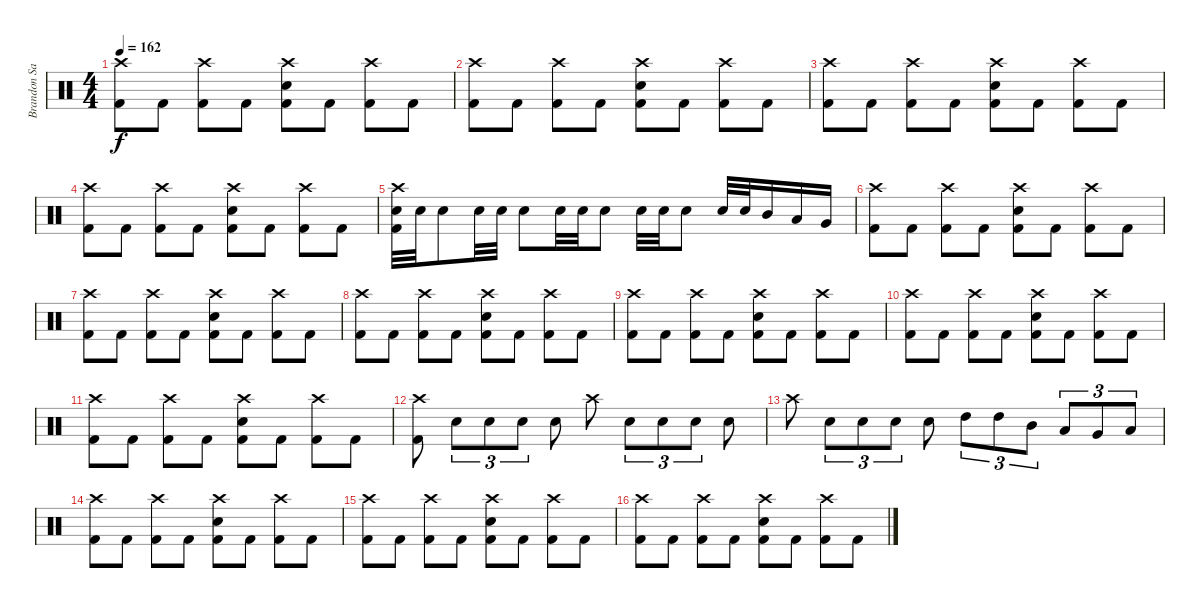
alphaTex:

\track ("Brandon Saller" "Brandon Sa") {instrument percussion}
\staff {score}
\articulation defaults
\ts (4 4)
\tempo 162
\clef neutral
\ks c
("Crash high (hit)" "Kick (hit) 2").8{dy f} "Kick (hit) 2".8 ("Crash high (hit)" "Kick (hit) 2").8 "Kick (hit) 2".8 ("Crash high (hit)" "Electric Snare (hit)" "Kick (hit) 2").8 "Kick (hit) 2".8 ("Crash high (hit)" "Kick (hit) 2").8 "Kick (hit) 2".8 |
("Crash high (hit)" "Kick (hit) 2").8 "Kick (hit) 2".8 ("Crash high (hit)" "Kick (hit) 2").8 "Kick (hit) 2".8 ("Crash high (hit)" "Electric Snare (hit)" "Kick (hit) 2").8 "Kick (hit) 2".8 ("Crash high (hit)" "Kick (hit) 2").8 "Kick (hit) 2".8 |
("Crash high (hit)" "Kick (hit) 2").8 "Kick (hit) 2".8 ("Crash high (hit)" "Kick (hit) 2").8 "Kick (hit) 2".8 ("Crash high (hit)" "Electric Snare (hit)" "Kick (hit) 2").8 "Kick (hit) 2".8 ("Crash high (hit)" "Kick (hit) 2").8 "Kick (hit) 2".8 |
("Crash high (hit)" "Kick (hit) 2").8 "Kick (hit) 2".8 ("Crash high (hit)" "Kick (hit) 2").8 "Kick (hit) 2".8 ("Crash high (hit)" "Electric Snare (hit)" "Kick (hit) 2").8 "Kick (hit) 2".8 ("Crash high (hit)" "Kick (hit) 2").8 "Kick (hit) 2".8 |
("Crash high (hit)" "Electric Snare (hit)" "Kick (hit) 2").32 "Electric Snare (hit)".32 "Electric Snare (hit)".8 "Electric Snare (hit)".32 "Electric Snare (hit)".32 "Electric Snare (hit)".8 "Electric Snare (hit)".32 "Electric Snare (hit)".32 "Electric Snare (hit)".8 "Electric Snare (hit)".32 "Electric Snare (hit)".32 "Electric Snare (hit)".8 "Electric Snare (hit)".32 "Electric Snare (hit)".32 "Mid Tom (hit)".16 "Low Tom (hit)".16 "Very Low Tom (hit)".16 |
("Crash high (hit)" "Kick (hit) 2").8 "Kick (hit) 2".8 ("Crash high (hit)" "Kick (hit) 2").8 "Kick (hit) 2".8 ("Crash high (hit)" "Electric Snare (hit)" "Kick (hit) 2").8 "Kick (hit) 2".8 ("Crash high (hit)" "Kick (hit) 2").8 "Kick (hit) 2".8 |
("Crash high (hit)" "Kick (hit) 2").8 "Kick (hit) 2".8 ("Crash high (hit)" "Kick (hit) 2").8 "Kick (hit) 2".8 ("Crash high (hit)" "Electric Snare (hit)" "Kick (hit) 2").8 "Kick (hit) 2".8 ("Crash high (hit)" "Kick (hit) 2").8 "Kick (hit) 2".8 |
("Crash high (hit)" "Kick (hit) 2").8 "Kick (hit) 2".8 ("Crash high (hit)" "Kick (hit) 2").8 "Kick (hit) 2".8 ("Crash high (hit)" "Electric Snare (hit)" "Kick (hit) 2").8 "Kick (hit) 2".8 ("Crash high (hit)" "Kick (hit) 2").8 "Kick (hit) 2".8 |
("Crash high (hit)" "Kick (hit) 2").8 "Kick (hit) 2".8 ("Crash high (hit)" "Kick (hit) 2").8 "Kick (hit) 2".8 ("Crash high (hit)" "Electric Snare (hit)" "Kick (hit) 2").8 "Kick (hit) 2".8 ("Crash high (hit)" "Kick (hit) 2").8 "Kick (hit) 2".8 |
("Crash high (hit)" "Kick (hit) 2").8 "Kick (hit) 2".8 ("Crash high (hit)" "Kick (hit) 2").8 "Kick (hit) 2".8 ("Crash high (hit)" "Electric Snare (hit)" "Kick (hit) 2").8 "Kick (hit) 2".8 ("Crash high (hit)" "Kick (hit) 2").8 "Kick (hit) 2".8 |
("Crash high (hit)" "Kick (hit) 2").8 "Kick (hit) 2".8 ("Crash high (hit)" "Kick (hit) 2").8 "Kick (hit) 2".8 ("Crash high (hit)" "Electric Snare (hit)" "Kick (hit) 2").8 "Kick (hit) 2".8 ("Crash high (hit)" "Kick (hit) 2").8 "Kick (hit) 2".8 |
("Crash high (hit)" "Kick (hit) 2").8 "Electric Snare (hit)".8{tu (3 2)} "Electric Snare (hit)".8{tu (3 2)} "Electric Snare (hit)".8{tu (3 2)} "Electric Snare (hit)".8 "Crash high (hit)".8 "Electric Snare (hit)".8{tu (3 2)} "Electric Snare (hit)".8{tu (3 2)} "Electric Snare (hit)".8{tu (3 2)} "Electric Snare (hit)".8 |
"Crash high (hit)".8 "Electric Snare (hit)".8{tu (3 2)} "Electric Snare (hit)".8{tu (3 2)} "Electric Snare (hit)".8{tu (3 2)} "Electric Snare (hit)".8 "High Tom (hit)".8{tu (3 2)} "High Tom (hit)".8{tu (3 2)} "Mid Tom (hit)".8{tu (3 2)} "Low Tom (hit)".8{tu (3 2)} "Very Low Tom (hit)".8{tu (3 2)} "Low Floor Tom (hit)".8{tu (3 2)} |
("Crash high (hit)" "Kick (hit) 2").8 "Kick (hit) 2".8 ("Crash high (hit)" "Kick (hit) 2").8 "Kick (hit) 2".8 ("Crash high (hit)" "Electric Snare (hit)" "Kick (hit) 2").8 "Kick (hit) 2".8 ("Crash high (hit)" "Kick (hit) 2").8 "Kick (hit) 2".8 |
("Crash high (hit)" "Kick (hit) 2").8 "Kick (hit) 2".8 ("Crash high (hit)" "Kick (hit) 2").8 "Kick (hit) 2".8 ("Crash high (hit)" "Electric Snare (hit)" "Kick (hit) 2").8 "Kick (hit) 2".8 ("Crash high (hit)" "Kick (hit) 2").8 "Kick (hit) 2".8 |
("Crash high (hit)" "Kick (hit) 2").8 "Kick (hit) 2".8 ("Crash high (hit)" "Kick (hit) 2").8 "Kick (hit) 2".8 ("Crash high (hit)" "Electric Snare (hit)" "Kick (hit) 2").8 "Kick (hit) 2".8 ("Crash high (hit)" "Kick (hit) 2").8 "Kick (hit) 2".8
